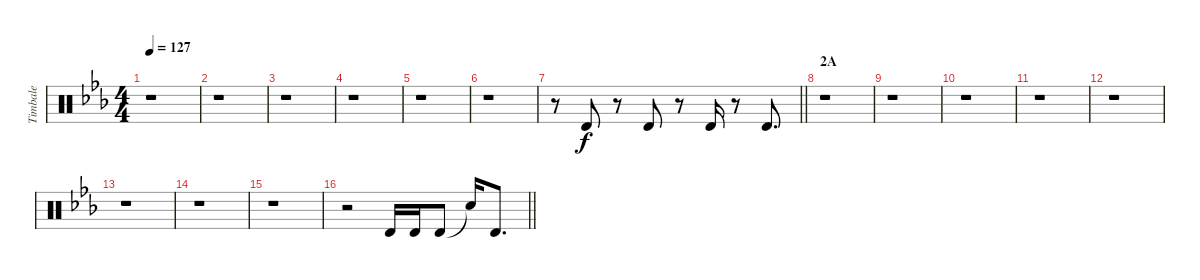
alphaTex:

\track ("Timbale" "Timbale") {instrument percussion}
\staff {score}
\articulation defaults
\ts (4 4)
\tempo 127
\clef neutral
\ks eb
r.1{dy f} |
r.1 |
r.1 |
r.1 |
r.1 |
r.1 |
\barLineRight lightlight
r.8 "Timbale high (hit)".8 r.8 "Timbale high (hit)".8 r.8 "Timbale high (hit)".16 r.8 "Timbale high (hit)".8{d} |
\section ("" "2A")
r.1 |
r.1 |
r.1 |
r.1 |
r.1 |
r.1 |
r.1 |
r.1 |
\barLineRight lightlight
r.2 "Timbale high (hit)".16 "Timbale high (hit)".16 "Timbale high (hit)".8 "Snare (hit)"{t}.16 "Timbale high (hit)".8{d}
